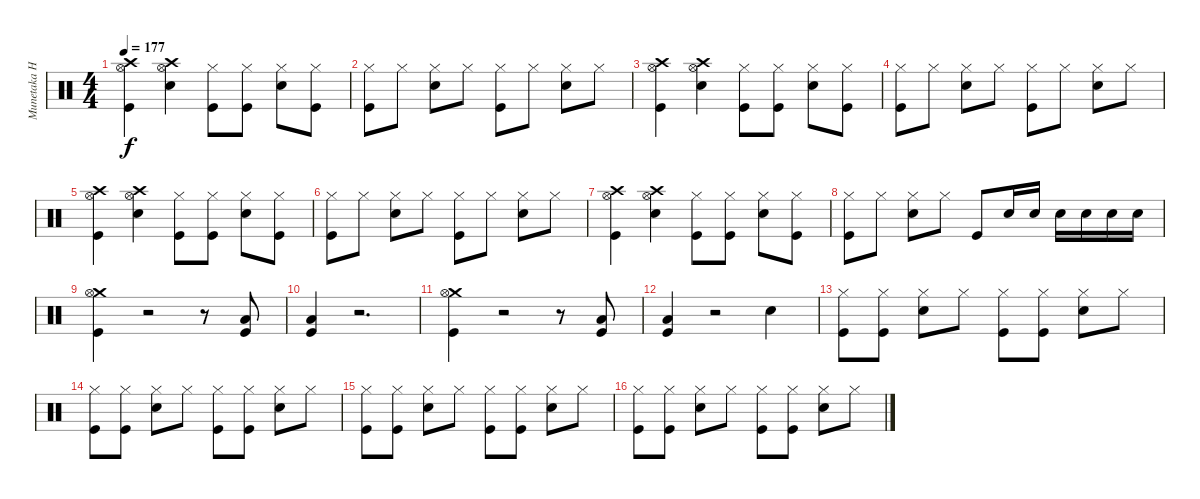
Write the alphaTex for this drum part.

\track ("Munetaka Higuchi" "Munetaka H") {instrument percussion}
\staff {score}
\articulation defaults
\ts (4 4)
\tempo 177
\clef neutral
\ks c
("Crash high (hit)" "Hi-Hat (open)" "Kick (hit)").4{dy f} ("Crash high (hit)" "Hi-Hat (open)" "Snare (hit) 2").4 ("Hi-Hat (closed)" "Kick (hit)").8 ("Hi-Hat (closed)" "Kick (hit)").8 ("Hi-Hat (closed)" "Snare (hit) 2").8 ("Hi-Hat (closed)" "Kick (hit)").8 |
("Hi-Hat (closed)" "Kick (hit)").8 "Hi-Hat (closed)".8 ("Hi-Hat (closed)" "Snare (hit) 2").8 "Hi-Hat (closed)".8 ("Hi-Hat (closed)" "Kick (hit)").8 "Hi-Hat (closed)".8 ("Hi-Hat (closed)" "Snare (hit) 2").8 "Hi-Hat (closed)".8 |
("Crash high (hit)" "Hi-Hat (open)" "Kick (hit)").4 ("Crash high (hit)" "Hi-Hat (open)" "Snare (hit) 2").4 ("Hi-Hat (closed)" "Kick (hit)").8 ("Hi-Hat (closed)" "Kick (hit)").8 ("Hi-Hat (closed)" "Snare (hit) 2").8 ("Hi-Hat (closed)" "Kick (hit)").8 |
("Hi-Hat (closed)" "Kick (hit)").8 "Hi-Hat (closed)".8 ("Hi-Hat (closed)" "Snare (hit) 2").8 "Hi-Hat (closed)".8 ("Hi-Hat (closed)" "Kick (hit)").8 "Hi-Hat (closed)".8 ("Hi-Hat (closed)" "Snare (hit) 2").8 "Hi-Hat (closed)".8 |
("Crash high (hit)" "Hi-Hat (open)" "Kick (hit)").4 ("Crash high (hit)" "Hi-Hat (open)" "Snare (hit) 2").4 ("Hi-Hat (closed)" "Kick (hit)").8 ("Hi-Hat (closed)" "Kick (hit)").8 ("Hi-Hat (closed)" "Snare (hit) 2").8 ("Hi-Hat (closed)" "Kick (hit)").8 |
("Hi-Hat (closed)" "Kick (hit)").8 "Hi-Hat (closed)".8 ("Hi-Hat (closed)" "Snare (hit) 2").8 "Hi-Hat (closed)".8 ("Hi-Hat (closed)" "Kick (hit)").8 "Hi-Hat (closed)".8 ("Hi-Hat (closed)" "Snare (hit) 2").8 "Hi-Hat (closed)".8 |
("Crash high (hit)" "Hi-Hat (open)" "Kick (hit)").4 ("Crash high (hit)" "Hi-Hat (open)" "Snare (hit) 2").4 ("Hi-Hat (closed)" "Kick (hit)").8 ("Hi-Hat (closed)" "Kick (hit)").8 ("Hi-Hat (closed)" "Snare (hit) 2").8 ("Hi-Hat (closed)" "Kick (hit)").8 |
("Hi-Hat (closed)" "Kick (hit)").8 "Hi-Hat (closed)".8 ("Hi-Hat (closed)" "Snare (hit) 2").8 "Hi-Hat (closed)".8 "Kick (hit)".8 "Snare (hit) 2".16 "Snare (hit) 2".16 "Snare (hit) 2".16 "Snare (hit) 2".16 "Snare (hit) 2".16 "Snare (hit) 2".16 |
("Crash medium (hit)" "Hi-Hat (open)" "Kick (hit)").4 r.2 r.8 ("Low Tom (hit)" "Kick (hit)").8 |
("Low Tom (hit)" "Kick (hit)").4 r.2{d} |
("Crash medium (hit)" "Hi-Hat (open)" "Kick (hit)").4 r.2 r.8 ("Low Tom (hit)" "Kick (hit)").8 |
("Low Tom (hit)" "Kick (hit)").4 r.2 "Snare (hit) 2".4 |
("Hi-Hat (closed)" "Kick (hit)").8 ("Hi-Hat (closed)" "Kick (hit)").8 ("Hi-Hat (closed)" "Snare (hit) 2").8 "Hi-Hat (closed)".8 ("Hi-Hat (closed)" "Kick (hit)").8 ("Hi-Hat (closed)" "Kick (hit)").8 ("Hi-Hat (closed)" "Snare (hit) 2").8 "Hi-Hat (closed)".8 |
("Hi-Hat (closed)" "Kick (hit)").8 ("Hi-Hat (closed)" "Kick (hit)").8 ("Hi-Hat (closed)" "Snare (hit) 2").8 "Hi-Hat (closed)".8 ("Hi-Hat (closed)" "Kick (hit)").8 ("Hi-Hat (closed)" "Kick (hit)").8 ("Hi-Hat (closed)" "Snare (hit) 2").8 "Hi-Hat (closed)".8 |
("Hi-Hat (closed)" "Kick (hit)").8 ("Hi-Hat (closed)" "Kick (hit)").8 ("Hi-Hat (closed)" "Snare (hit) 2").8 "Hi-Hat (closed)".8 ("Hi-Hat (closed)" "Kick (hit)").8 ("Hi-Hat (closed)" "Kick (hit)").8 ("Hi-Hat (closed)" "Snare (hit) 2").8 "Hi-Hat (closed)".8 |
("Hi-Hat (closed)" "Kick (hit)").8 ("Hi-Hat (closed)" "Kick (hit)").8 ("Hi-Hat (closed)" "Snare (hit) 2").8 "Hi-Hat (closed)".8 ("Hi-Hat (closed)" "Kick (hit)").8 ("Hi-Hat (closed)" "Kick (hit)").8 ("Hi-Hat (closed)" "Snare (hit) 2").8 "Hi-Hat (closed)".8
